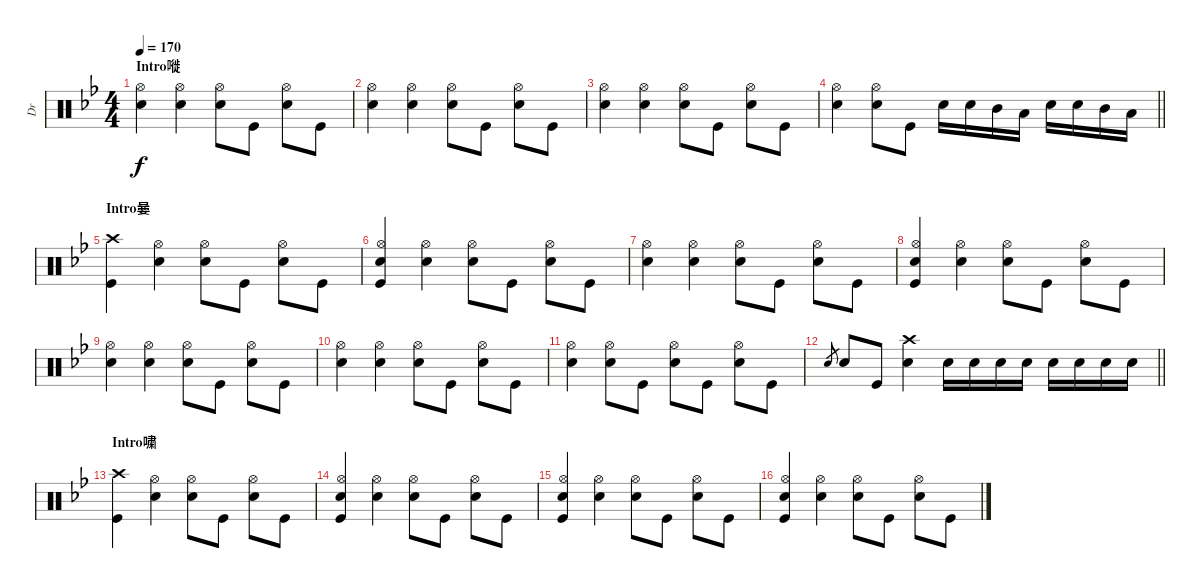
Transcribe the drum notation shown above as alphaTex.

\track ("Dr" "Dr") {instrument percussion}
\staff {score}
\articulation defaults
\ts (4 4)
\section ("" "Intro嘥")
\tempo 170
\clef neutral
\ks bb
("Electric Snare (hit)" "Hi-Hat (open)").4{dy f} ("Electric Snare (hit)" "Hi-Hat (open)").4 ("Electric Snare (hit)" "Hi-Hat (open)").8 "Kick (hit)".8 ("Electric Snare (hit)" "Hi-Hat (open)").8 "Kick (hit)".8 |
("Electric Snare (hit)" "Hi-Hat (open)").4 ("Electric Snare (hit)" "Hi-Hat (open)").4 ("Electric Snare (hit)" "Hi-Hat (open)").8 "Kick (hit)".8 ("Electric Snare (hit)" "Hi-Hat (open)").8 "Kick (hit)".8 |
("Electric Snare (hit)" "Hi-Hat (open)").4 ("Electric Snare (hit)" "Hi-Hat (open)").4 ("Electric Snare (hit)" "Hi-Hat (open)").8 "Kick (hit)".8 ("Electric Snare (hit)" "Hi-Hat (open)").8 "Kick (hit)".8 |
\barLineRight lightlight
("Electric Snare (hit)" "Hi-Hat (open)").4 ("Electric Snare (hit)" "Hi-Hat (open)").8 "Kick (hit)".8 "Electric Snare (hit)".16 "Electric Snare (hit)".16 "Mid Tom (hit)".16 "Low Floor Tom (hit)".16 "Electric Snare (hit)".16 "Electric Snare (hit)".16 "Mid Tom (hit)".16 "Low Floor Tom (hit)".16 |
\section ("" "Intro嘦")
("Crash high (hit)" "Kick (hit)").4 ("Electric Snare (hit)" "Hi-Hat (open)").4 ("Electric Snare (hit)" "Hi-Hat (open)").8 "Kick (hit)".8 ("Electric Snare (hit)" "Hi-Hat (open)").8 "Kick (hit)".8 |
("Electric Snare (hit)" "Hi-Hat (open)" "Kick (hit)").4 ("Electric Snare (hit)" "Hi-Hat (open)").4 ("Electric Snare (hit)" "Hi-Hat (open)").8 "Kick (hit)".8 ("Electric Snare (hit)" "Hi-Hat (open)").8 "Kick (hit)".8 |
("Electric Snare (hit)" "Hi-Hat (open)").4 ("Electric Snare (hit)" "Hi-Hat (open)").4 ("Electric Snare (hit)" "Hi-Hat (open)").8 "Kick (hit)".8 ("Electric Snare (hit)" "Hi-Hat (open)").8 "Kick (hit)".8 |
("Electric Snare (hit)" "Hi-Hat (open)" "Kick (hit)").4 ("Electric Snare (hit)" "Hi-Hat (open)").4 ("Electric Snare (hit)" "Hi-Hat (open)").8 "Kick (hit)".8 ("Electric Snare (hit)" "Hi-Hat (open)").8 "Kick (hit)".8 |
("Electric Snare (hit)" "Hi-Hat (open)").4 ("Electric Snare (hit)" "Hi-Hat (open)").4 ("Electric Snare (hit)" "Hi-Hat (open)").8 "Kick (hit)".8 ("Electric Snare (hit)" "Hi-Hat (open)").8 "Kick (hit)".8 |
("Electric Snare (hit)" "Hi-Hat (open)").4 ("Electric Snare (hit)" "Hi-Hat (open)").4 ("Electric Snare (hit)" "Hi-Hat (open)").8 "Kick (hit)".8 ("Electric Snare (hit)" "Hi-Hat (open)").8 "Kick (hit)".8 |
("Electric Snare (hit)" "Hi-Hat (open)").4 ("Electric Snare (hit)" "Hi-Hat (open)").8 "Kick (hit)".8 ("Electric Snare (hit)" "Hi-Hat (open)").8 "Kick (hit)".8 ("Electric Snare (hit)" "Hi-Hat (open)").8 "Kick (hit)".8 |
\barLineRight lightlight "Electric Snare (hit)".8{gr} "Electric Snare (hit)".8 "Kick (hit)".8
("Crash high (hit)" "Electric Snare (hit)").4 "Electric Snare (hit)".16 "Electric Snare (hit)".16 "Electric Snare (hit)".16 "Electric Snare (hit)".16 "Electric Snare (hit)".16 "Electric Snare (hit)".16 "Electric Snare (hit)".16 "Electric Snare (hit)".16 |
\section ("" "Intro嘨")
("Crash high (hit)" "Kick (hit)").4 ("Electric Snare (hit)" "Hi-Hat (open)").4 ("Electric Snare (hit)" "Hi-Hat (open)").8 "Kick (hit)".8 ("Electric Snare (hit)" "Hi-Hat (open)").8 "Kick (hit)".8 |
("Electric Snare (hit)" "Hi-Hat (open)" "Kick (hit)").4 ("Electric Snare (hit)" "Hi-Hat (open)").4 ("Electric Snare (hit)" "Hi-Hat (open)").8 "Kick (hit)".8 ("Electric Snare (hit)" "Hi-Hat (open)").8 "Kick (hit)".8 |
("Electric Snare (hit)" "Hi-Hat (open)" "Kick (hit)").4 ("Electric Snare (hit)" "Hi-Hat (open)").4 ("Electric Snare (hit)" "Hi-Hat (open)").8 "Kick (hit)".8 ("Electric Snare (hit)" "Hi-Hat (open)").8 "Kick (hit)".8 |
("Electric Snare (hit)" "Hi-Hat (open)" "Kick (hit)").4 ("Electric Snare (hit)" "Hi-Hat (open)").4 ("Electric Snare (hit)" "Hi-Hat (open)").8 "Kick (hit)".8 ("Electric Snare (hit)" "Hi-Hat (open)").8 "Kick (hit)".8
